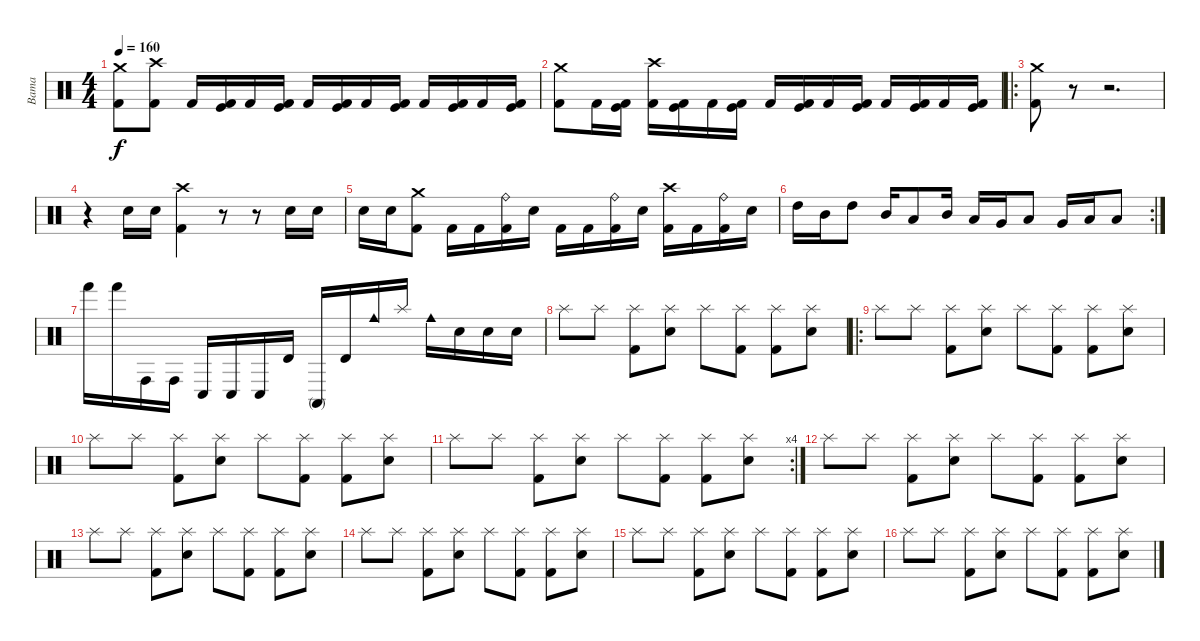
\track ("Bama" "Bama") {instrument percussion}
\staff {score}
\articulation defaults
\ts (4 4)
\tempo 160
\clef neutral
\ks c
("Crash medium (hit)" "Kick (hit) 2").8{dy f} ("Crash high (hit)" "Kick (hit) 2").8 "Kick (hit) 2".16 ("Kick (hit)" "Kick (hit) 2").16 "Kick (hit) 2".16 ("Kick (hit)" "Kick (hit) 2").16 "Kick (hit) 2".16 ("Kick (hit)" "Kick (hit) 2").16 "Kick (hit) 2".16 ("Kick (hit)" "Kick (hit) 2").16 "Kick (hit) 2".16 ("Kick (hit)" "Kick (hit) 2").16 "Kick (hit) 2".16 ("Kick (hit)" "Kick (hit) 2").16 |
("Crash medium (hit)" "Kick (hit) 2").8 "Kick (hit) 2".16 ("Kick (hit)" "Kick (hit) 2").16 ("Crash high (hit)" "Kick (hit) 2").16 ("Kick (hit)" "Kick (hit) 2").16 "Kick (hit) 2".16 ("Kick (hit)" "Kick (hit) 2").16 "Kick (hit) 2".16 ("Kick (hit)" "Kick (hit) 2").16 "Kick (hit) 2".16 ("Kick (hit)" "Kick (hit) 2").16 "Kick (hit) 2".16 ("Kick (hit)" "Kick (hit) 2").16 "Kick (hit) 2".16 ("Kick (hit)" "Kick (hit) 2").16 |
\ro
("Crash medium (hit)" "Kick (hit) 2").8 r.8 r.2{d} |
r.4 "Electric Snare (hit)".16 "Electric Snare (hit)".16 ("Crash high (hit)" "Kick (hit) 2").4 r.8 r.8 "Electric Snare (hit)".16 "Electric Snare (hit)".16 |
"Electric Snare (hit)".16 "Electric Snare (hit)".16 ("Crash medium (hit)" "Kick (hit) 2").8 "Kick (hit) 2".16 "Kick (hit) 2".16 ("Ride (bell)" "Kick (hit) 2").16 "Electric Snare (hit)".16 "Kick (hit) 2".16 "Kick (hit) 2".16 ("Ride (bell)" "Kick (hit) 2").16 "Electric Snare (hit)".16 ("Crash high (hit)" "Kick (hit) 2").16 "Kick (hit) 2".16 ("Ride (bell)" "Kick (hit) 2").16 "Electric Snare (hit)".16 |
\rc 2 "High Tom (hit)".16 "Mid Tom (hit)".16 "High Tom (hit)".8 "Mid Tom (hit)".16 "Low Tom (hit)".8 "Mid Tom (hit)".16 "Low Tom (hit)".16 "Very Low Tom (hit)".16 "Low Tom (hit)".8 "Very Low Tom (hit)".16 "Low Floor Tom (hit)".16 "Low Floor Tom (hit)".8
|
"Hand (hit)".16 "Hand (hit)".16 "Conga high (hit)".16 "Conga high (hit)".16 "Conga low (hit)".16 "Conga low (hit)".16 "Conga low (hit)".16 "Timbale high (hit)".16 "Conga high (mute)".16 "Timbale high (hit)".16 "Cowbell medium (hit)".16 "Splash (hit)".16 "Cowbell medium (hit)".16 "Electric Snare (hit)".16 "Electric Snare (hit)".16 "Electric Snare (hit)".16 |
"Splash (hit)".8 "Splash (hit)".8 ("Splash (hit)" "Kick (hit) 2").8 ("Splash (hit)" "Electric Snare (hit)").8 "Splash (hit)".8 ("Splash (hit)" "Kick (hit) 2").8 ("Splash (hit)" "Kick (hit) 2").8 ("Splash (hit)" "Electric Snare (hit)").8 |
\ro "Splash (hit)".8 "Splash (hit)".8
("Splash (hit)" "Kick (hit) 2").8 ("Splash (hit)" "Electric Snare (hit)").8 "Splash (hit)".8 ("Splash (hit)" "Kick (hit) 2").8 ("Splash (hit)" "Kick (hit) 2").8 ("Splash (hit)" "Electric Snare (hit)").8 |
"Splash (hit)".8 "Splash (hit)".8 ("Splash (hit)" "Kick (hit) 2").8 ("Splash (hit)" "Electric Snare (hit)").8 "Splash (hit)".8 ("Splash (hit)" "Kick (hit) 2").8 ("Splash (hit)" "Kick (hit) 2").8 ("Splash (hit)" "Electric Snare (hit)").8 |
\rc 4 "Splash (hit)".8 "Splash (hit)".8
("Splash (hit)" "Kick (hit) 2").8 ("Splash (hit)" "Electric Snare (hit)").8 "Splash (hit)".8 ("Splash (hit)" "Kick (hit) 2").8 ("Splash (hit)" "Kick (hit) 2").8 ("Splash (hit)" "Electric Snare (hit)").8 |
"Splash (hit)".8 "Splash (hit)".8 ("Splash (hit)" "Kick (hit) 2").8 ("Splash (hit)" "Electric Snare (hit)").8 "Splash (hit)".8 ("Splash (hit)" "Kick (hit) 2").8 ("Splash (hit)" "Kick (hit) 2").8 ("Splash (hit)" "Electric Snare (hit)").8 |
"Splash (hit)".8 "Splash (hit)".8 ("Splash (hit)" "Kick (hit) 2").8 ("Splash (hit)" "Electric Snare (hit)").8 "Splash (hit)".8 ("Splash (hit)" "Kick (hit) 2").8 ("Splash (hit)" "Kick (hit) 2").8 ("Splash (hit)" "Electric Snare (hit)").8 |
"Splash (hit)".8 "Splash (hit)".8 ("Splash (hit)" "Kick (hit) 2").8 ("Splash (hit)" "Electric Snare (hit)").8 "Splash (hit)".8 ("Splash (hit)" "Kick (hit) 2").8 ("Splash (hit)" "Kick (hit) 2").8 ("Splash (hit)" "Electric Snare (hit)").8 |
"Splash (hit)".8 "Splash (hit)".8 ("Splash (hit)" "Kick (hit) 2").8 ("Splash (hit)" "Electric Snare (hit)").8 "Splash (hit)".8 ("Splash (hit)" "Kick (hit) 2").8 ("Splash (hit)" "Kick (hit) 2").8 ("Splash (hit)" "Electric Snare (hit)").8 |
"Splash (hit)".8 "Splash (hit)".8 ("Splash (hit)" "Kick (hit) 2").8 ("Splash (hit)" "Electric Snare (hit)").8 "Splash (hit)".8 ("Splash (hit)" "Kick (hit) 2").8 ("Splash (hit)" "Kick (hit) 2").8 ("Splash (hit)" "Electric Snare (hit)").8
